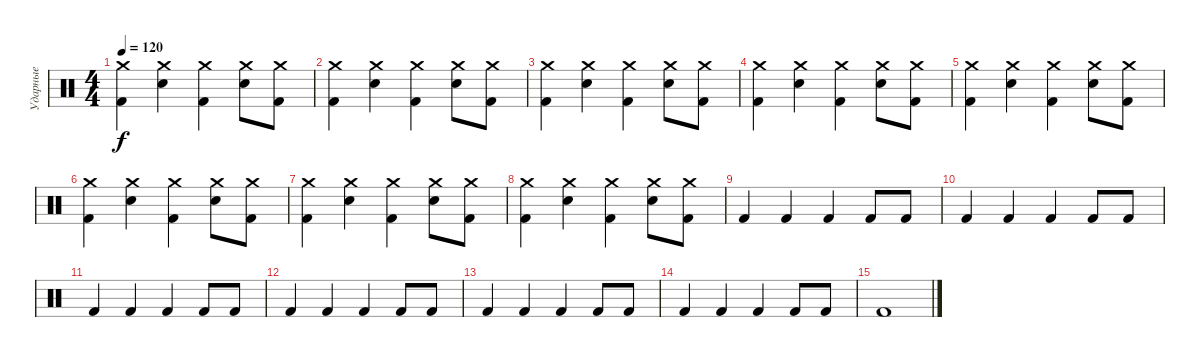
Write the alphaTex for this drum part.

\track ("Ударные" "Ударные") {instrument percussion}
\staff {score}
\articulation defaults
\ts (4 4)
\tempo 120
\clef neutral
\ks c
("Crash medium (hit)" "Kick (hit) 2").4{dy f} ("Crash medium (hit)" "Electric Snare (hit)").4 ("Crash medium (hit)" "Kick (hit) 2").4 ("Crash medium (hit)" "Electric Snare (hit)").8 ("Crash medium (hit)" "Kick (hit) 2").8 |
("Crash medium (hit)" "Kick (hit) 2").4 ("Crash medium (hit)" "Electric Snare (hit)").4 ("Crash medium (hit)" "Kick (hit) 2").4 ("Crash medium (hit)" "Electric Snare (hit)").8 ("Crash medium (hit)" "Kick (hit) 2").8 |
("Crash medium (hit)" "Kick (hit) 2").4 ("Crash medium (hit)" "Electric Snare (hit)").4 ("Crash medium (hit)" "Kick (hit) 2").4 ("Crash medium (hit)" "Electric Snare (hit)").8 ("Crash medium (hit)" "Kick (hit) 2").8 |
("Crash medium (hit)" "Kick (hit) 2").4 ("Crash medium (hit)" "Electric Snare (hit)").4 ("Crash medium (hit)" "Kick (hit) 2").4 ("Crash medium (hit)" "Electric Snare (hit)").8 ("Crash medium (hit)" "Kick (hit) 2").8 |
("Crash medium (hit)" "Kick (hit) 2").4 ("Crash medium (hit)" "Electric Snare (hit)").4 ("Crash medium (hit)" "Kick (hit) 2").4 ("Crash medium (hit)" "Electric Snare (hit)").8 ("Crash medium (hit)" "Kick (hit) 2").8 |
("Crash medium (hit)" "Kick (hit) 2").4 ("Crash medium (hit)" "Electric Snare (hit)").4 ("Crash medium (hit)" "Kick (hit) 2").4 ("Crash medium (hit)" "Electric Snare (hit)").8 ("Crash medium (hit)" "Kick (hit) 2").8 |
("Crash medium (hit)" "Kick (hit) 2").4 ("Crash medium (hit)" "Electric Snare (hit)").4 ("Crash medium (hit)" "Kick (hit) 2").4 ("Crash medium (hit)" "Electric Snare (hit)").8 ("Crash medium (hit)" "Kick (hit) 2").8 |
("Crash medium (hit)" "Kick (hit) 2").4 ("Crash medium (hit)" "Electric Snare (hit)").4 ("Crash medium (hit)" "Kick (hit) 2").4 ("Crash medium (hit)" "Electric Snare (hit)").8 ("Crash medium (hit)" "Kick (hit) 2").8 |
"Kick (hit) 2".4 "Kick (hit) 2".4 "Kick (hit) 2".4 "Kick (hit) 2".8 "Kick (hit) 2".8 |
"Kick (hit) 2".4 "Kick (hit) 2".4 "Kick (hit) 2".4 "Kick (hit) 2".8 "Kick (hit) 2".8 |
"Kick (hit) 2".4 "Kick (hit) 2".4 "Kick (hit) 2".4 "Kick (hit) 2".8 "Kick (hit) 2".8 |
"Kick (hit) 2".4 "Kick (hit) 2".4 "Kick (hit) 2".4 "Kick (hit) 2".8 "Kick (hit) 2".8 |
"Kick (hit) 2".4 "Kick (hit) 2".4 "Kick (hit) 2".4 "Kick (hit) 2".8 "Kick (hit) 2".8 |
"Kick (hit) 2".4 "Kick (hit) 2".4 "Kick (hit) 2".4 "Kick (hit) 2".8 "Kick (hit) 2".8 |
"Kick (hit) 2".1
